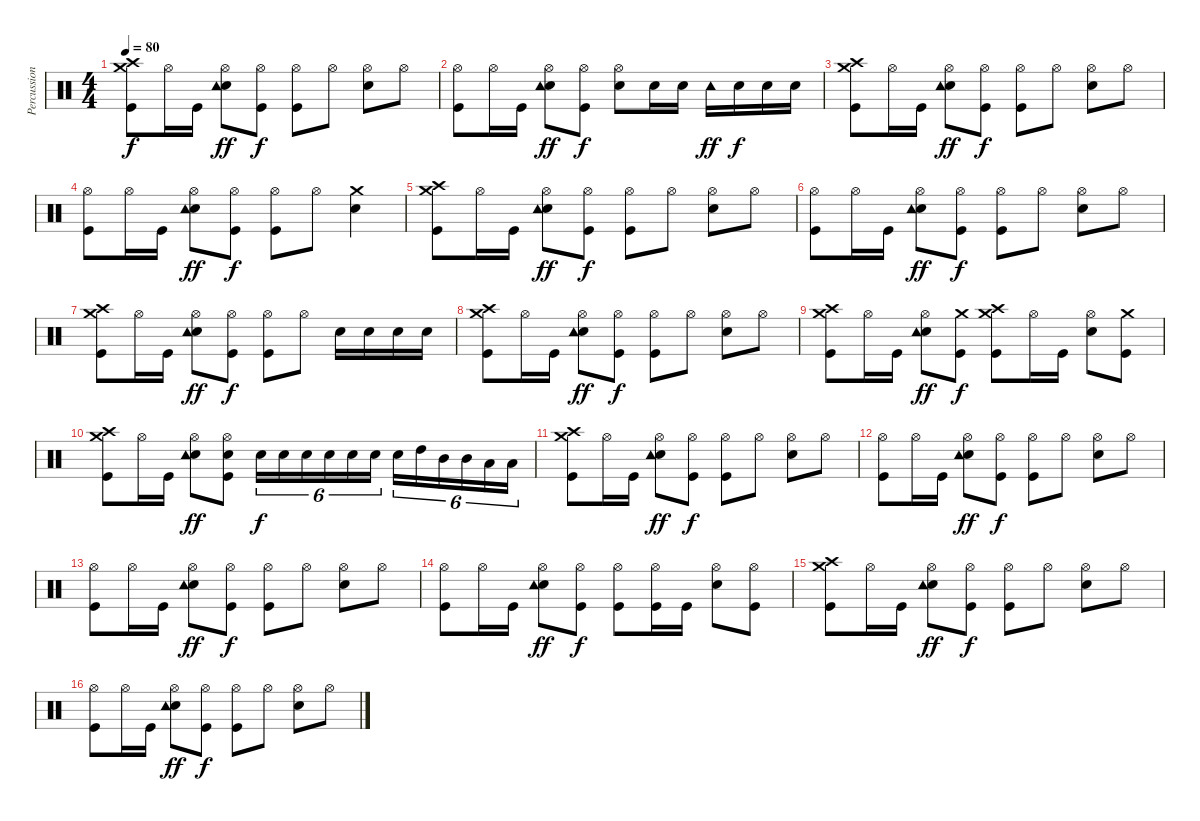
\track ("Percussion" "Percussion") {instrument percussion}
\staff {score}
\articulation defaults
\ts (4 4)
\tempo 80
\clef neutral
\ks c
("Crash high (hit)" "Crash medium (hit)" "Kick (hit)").8{dy f} "Hi-Hat (open)".16 "Kick (hit)".16 ("Electric Snare (hit)" "Hi-Hat (open)" "Tambourine (hit)").8{dy ff} ("Hi-Hat (open)" "Kick (hit)").8{dy f} ("Hi-Hat (open)" "Kick (hit)").8 "Hi-Hat (open)".8 ("Electric Snare (hit)" "Hi-Hat (open)").8 "Hi-Hat (open)".8 |
("Hi-Hat (open)" "Kick (hit)").8 "Hi-Hat (open)".16 "Kick (hit)".16 ("Electric Snare (hit)" "Hi-Hat (open)" "Tambourine (hit)").8{dy ff} ("Hi-Hat (open)" "Kick (hit)").8{dy f} ("Electric Snare (hit)" "Hi-Hat (open)").8 "Electric Snare (hit)".16 "Electric Snare (hit)".16 "Tambourine (hit)".16{dy ff} "Electric Snare (hit)".16{dy f} "Electric Snare (hit)".16 "Electric Snare (hit)".16 |
("Crash high (hit)" "Crash medium (hit)" "Kick (hit)").8 "Hi-Hat (open)".16 "Kick (hit)".16 ("Electric Snare (hit)" "Hi-Hat (open)" "Tambourine (hit)").8{dy ff} ("Hi-Hat (open)" "Kick (hit)").8{dy f} ("Hi-Hat (open)" "Kick (hit)").8 "Hi-Hat (open)".8 ("Electric Snare (hit)" "Hi-Hat (open)").8 "Hi-Hat (open)".8 |
("Hi-Hat (open)" "Kick (hit)").8 "Hi-Hat (open)".16 "Kick (hit)".16 ("Electric Snare (hit)" "Hi-Hat (open)" "Tambourine (hit)").8{dy ff} ("Hi-Hat (open)" "Kick (hit)").8{dy f} ("Hi-Hat (open)" "Kick (hit)").8 "Hi-Hat (open)".8 ("Electric Snare (hit)" "Crash medium (hit)").4 |
("Crash high (hit)" "Crash medium (hit)" "Kick (hit)").8 "Hi-Hat (open)".16 "Kick (hit)".16 ("Electric Snare (hit)" "Hi-Hat (open)" "Tambourine (hit)").8{dy ff} ("Hi-Hat (open)" "Kick (hit)").8{dy f} ("Hi-Hat (open)" "Kick (hit)").8 "Hi-Hat (open)".8 ("Electric Snare (hit)" "Hi-Hat (open)").8 "Hi-Hat (open)".8 |
("Hi-Hat (open)" "Kick (hit)").8 "Hi-Hat (open)".16 "Kick (hit)".16 ("Electric Snare (hit)" "Hi-Hat (open)" "Tambourine (hit)").8{dy ff} ("Hi-Hat (open)" "Kick (hit)").8{dy f} ("Hi-Hat (open)" "Kick (hit)").8 "Hi-Hat (open)".8 ("Electric Snare (hit)" "Hi-Hat (open)").8 "Hi-Hat (open)".8 |
("Crash high (hit)" "Crash medium (hit)" "Kick (hit)").8 "Hi-Hat (open)".16 "Kick (hit)".16 ("Electric Snare (hit)" "Hi-Hat (open)" "Tambourine (hit)").8{dy ff} ("Hi-Hat (open)" "Kick (hit)").8{dy f} ("Hi-Hat (open)" "Kick (hit)").8 "Hi-Hat (open)".8 "Electric Snare (hit)".16 "Electric Snare (hit)".16 "Electric Snare (hit)".16 "Electric Snare (hit)".16 |
("Crash high (hit)" "Crash medium (hit)" "Kick (hit)").8 "Hi-Hat (open)".16 "Kick (hit)".16 ("Electric Snare (hit)" "Hi-Hat (open)" "Tambourine (hit)").8{dy ff} ("Hi-Hat (open)" "Kick (hit)").8{dy f} ("Hi-Hat (open)" "Kick (hit)").8 "Hi-Hat (open)".8 ("Electric Snare (hit)" "Hi-Hat (open)").8 "Hi-Hat (open)".8 |
("Crash high (hit)" "Crash medium (hit)" "Kick (hit)").8 "Hi-Hat (open)".16 "Kick (hit)".16 ("Electric Snare (hit)" "Hi-Hat (open)" "Tambourine (hit)").8{dy ff} ("Crash medium (hit)" "Kick (hit)").8{dy f} ("Crash high (hit)" "Crash medium (hit)" "Kick (hit)").8 "Hi-Hat (open)".16 "Kick (hit)".16 ("Electric Snare (hit)" "Hi-Hat (open)").8 ("Crash medium (hit)" "Kick (hit)").8 |
("Crash high (hit)" "Crash medium (hit)" "Kick (hit)").8 "Hi-Hat (open)".16 "Kick (hit)".16 ("Electric Snare (hit)" "Hi-Hat (open)" "Tambourine (hit)").8{dy ff} ("Electric Snare (hit)" "Hi-Hat (open)" "Kick (hit)").8 "Electric Snare (hit)".16{tu (6 4) dy f} "Electric Snare (hit)".16{tu (6 4)} "Electric Snare (hit)".16{tu (6 4)} "Electric Snare (hit)".16{tu (6 4)} "Electric Snare (hit)".16{tu (6 4)} "Electric Snare (hit)".16{tu (6 4)} "Electric Snare (hit)".16{tu (6 4)} "High Tom (hit)".16{tu (6 4)} "Mid Tom (hit)".16{tu (6 4)} "Mid Tom (hit)".16{tu (6 4)} "Low Tom (hit)".16{tu (6 4)} "Low Tom (hit)".16{tu (6 4)} |
("Crash high (hit)" "Crash medium (hit)" "Kick (hit)").8 "Hi-Hat (open)".16 "Kick (hit)".16 ("Electric Snare (hit)" "Hi-Hat (open)" "Tambourine (hit)").8{dy ff} ("Hi-Hat (open)" "Kick (hit)").8{dy f} ("Hi-Hat (open)" "Kick (hit)").8 "Hi-Hat (open)".8 ("Electric Snare (hit)" "Hi-Hat (open)").8 "Hi-Hat (open)".8 |
("Hi-Hat (open)" "Kick (hit)").8 "Hi-Hat (open)".16 "Kick (hit)".16 ("Electric Snare (hit)" "Hi-Hat (open)" "Tambourine (hit)").8{dy ff} ("Hi-Hat (open)" "Kick (hit)").8{dy f} ("Hi-Hat (open)" "Kick (hit)").8 "Hi-Hat (open)".8 ("Electric Snare (hit)" "Hi-Hat (open)").8 "Hi-Hat (open)".8 |
("Hi-Hat (open)" "Kick (hit)").8 "Hi-Hat (open)".16 "Kick (hit)".16 ("Electric Snare (hit)" "Hi-Hat (open)" "Tambourine (hit)").8{dy ff} ("Hi-Hat (open)" "Kick (hit)").8{dy f} ("Hi-Hat (open)" "Kick (hit)").8 "Hi-Hat (open)".8 ("Electric Snare (hit)" "Hi-Hat (open)").8 "Hi-Hat (open)".8 |
("Hi-Hat (open)" "Kick (hit)").8 "Hi-Hat (open)".16 "Kick (hit)".16 ("Electric Snare (hit)" "Hi-Hat (open)" "Tambourine (hit)").8{dy ff} ("Hi-Hat (open)" "Kick (hit)").8{dy f} ("Hi-Hat (open)" "Kick (hit)").8 ("Hi-Hat (open)" "Kick (hit)").16 "Kick (hit)".16 ("Electric Snare (hit)" "Hi-Hat (open)").8 ("Hi-Hat (open)" "Kick (hit)").8 |
("Crash high (hit)" "Crash medium (hit)" "Kick (hit)").8 "Hi-Hat (open)".16 "Kick (hit)".16 ("Electric Snare (hit)" "Hi-Hat (open)" "Tambourine (hit)").8{dy ff} ("Hi-Hat (open)" "Kick (hit)").8{dy f} ("Hi-Hat (open)" "Kick (hit)").8 "Hi-Hat (open)".8 ("Electric Snare (hit)" "Hi-Hat (open)").8 "Hi-Hat (open)".8 |
("Hi-Hat (open)" "Kick (hit)").8 "Hi-Hat (open)".16 "Kick (hit)".16 ("Electric Snare (hit)" "Hi-Hat (open)" "Tambourine (hit)").8{dy ff} ("Hi-Hat (open)" "Kick (hit)").8{dy f} ("Hi-Hat (open)" "Kick (hit)").8 "Hi-Hat (open)".8 ("Electric Snare (hit)" "Hi-Hat (open)").8 "Hi-Hat (open)".8
